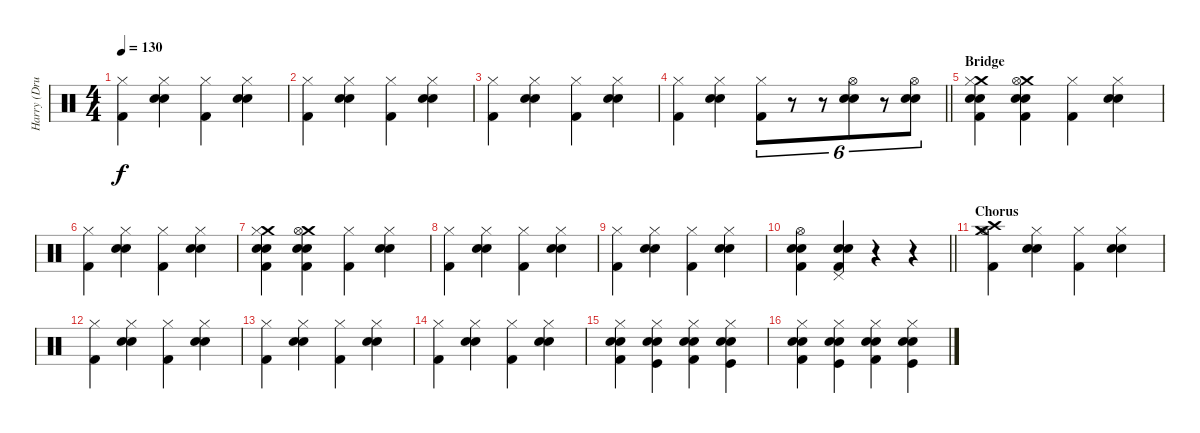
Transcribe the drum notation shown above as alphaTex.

\track ("Harry (Drums)" "Harry (Dru") {instrument percussion}
\staff {score}
\articulation defaults
\ts (4 4)
\tempo 130
\clef neutral
\ks c
("Hi-Hat (closed)" "Kick (hit) 2").4{dy f} ("Hi-Hat (closed)" "Snare (hit) 2" "Electric Snare (hit)").4 ("Hi-Hat (closed)" "Kick (hit) 2").4 ("Hi-Hat (closed)" "Snare (hit) 2" "Electric Snare (hit)").4 |
("Hi-Hat (closed)" "Kick (hit) 2").4 ("Hi-Hat (closed)" "Snare (hit) 2" "Electric Snare (hit)").4 ("Hi-Hat (closed)" "Kick (hit) 2").4 ("Hi-Hat (closed)" "Snare (hit) 2" "Electric Snare (hit)").4 |
("Hi-Hat (closed)" "Kick (hit) 2").4 ("Hi-Hat (closed)" "Snare (hit) 2" "Electric Snare (hit)").4 ("Hi-Hat (closed)" "Kick (hit) 2").4 ("Hi-Hat (closed)" "Snare (hit) 2" "Electric Snare (hit)").4 |
\barLineRight lightlight
("Hi-Hat (closed)" "Kick (hit) 2").4 ("Hi-Hat (closed)" "Snare (hit) 2" "Electric Snare (hit)").4 ("Hi-Hat (closed)" "Kick (hit) 2").8{tu (6 4)} r.8{tu (6 4)} r.8{tu (6 4)} ("Hi-Hat (open)" "Snare (hit) 2" "Electric Snare (hit)").8{tu (6 4)} r.8{tu (6 4)} ("Hi-Hat (open)" "Snare (hit) 2" "Electric Snare (hit)").8{tu (6 4)} |
\section ("" "Bridge")
("Crash medium (hit)" "Hi-Hat (closed)" "Snare (hit) 2" "Kick (hit) 2" "Electric Snare (hit)").4 ("Crash medium (hit)" "Hi-Hat (open)" "Kick (hit) 2" "Snare (hit) 2" "Electric Snare (hit)").4 ("Hi-Hat (closed)" "Kick (hit) 2").4 ("Hi-Hat (closed)" "Snare (hit) 2" "Electric Snare (hit)").4 |
("Hi-Hat (closed)" "Kick (hit) 2").4 ("Hi-Hat (closed)" "Snare (hit) 2" "Electric Snare (hit)").4 ("Hi-Hat (closed)" "Kick (hit) 2").4 ("Hi-Hat (closed)" "Snare (hit) 2" "Electric Snare (hit)").4 |
("Crash medium (hit)" "Hi-Hat (closed)" "Snare (hit) 2" "Kick (hit) 2" "Electric Snare (hit)").4 ("Crash medium (hit)" "Hi-Hat (open)" "Kick (hit) 2" "Snare (hit) 2" "Electric Snare (hit)").4 ("Hi-Hat (closed)" "Kick (hit) 2").4 ("Hi-Hat (closed)" "Snare (hit) 2" "Electric Snare (hit)").4 |
("Hi-Hat (closed)" "Kick (hit) 2").4 ("Hi-Hat (closed)" "Snare (hit) 2" "Electric Snare (hit)").4 ("Hi-Hat (closed)" "Kick (hit) 2").4 ("Hi-Hat (closed)" "Snare (hit) 2" "Electric Snare (hit)").4 |
("Hi-Hat (closed)" "Kick (hit) 2").4 ("Hi-Hat (closed)" "Snare (hit) 2" "Electric Snare (hit)").4 ("Hi-Hat (closed)" "Kick (hit) 2").4 ("Hi-Hat (closed)" "Snare (hit) 2" "Electric Snare (hit)").4 |
\barLineRight lightlight
("Hi-Hat (open)" "Electric Snare (hit)" "Kick (hit) 2" "Snare (hit) 2").4 ("Pedal Hi-Hat (hit)" "Kick (hit) 2" "Snare (hit) 2" "Electric Snare (hit)").4 r.4 r.4 |
\section ("" "Chorus")
("Crash high (hit)" "Crash medium (hit)" "Hi-Hat (open)" "Kick (hit) 2").4{volume 13} ("Hi-Hat (closed)" "Snare (hit) 2" "Electric Snare (hit)").4 ("Hi-Hat (closed)" "Kick (hit) 2").4 ("Hi-Hat (closed)" "Snare (hit) 2" "Electric Snare (hit)").4 |
("Hi-Hat (closed)" "Kick (hit) 2").4 ("Hi-Hat (closed)" "Snare (hit) 2" "Electric Snare (hit)").4 ("Hi-Hat (closed)" "Kick (hit) 2").4 ("Hi-Hat (closed)" "Snare (hit) 2" "Electric Snare (hit)").4 |
("Hi-Hat (closed)" "Kick (hit) 2").4 ("Hi-Hat (closed)" "Snare (hit) 2" "Electric Snare (hit)").4 ("Hi-Hat (closed)" "Kick (hit) 2").4 ("Hi-Hat (closed)" "Snare (hit) 2" "Electric Snare (hit)").4 |
("Hi-Hat (closed)" "Kick (hit) 2").4 ("Hi-Hat (closed)" "Snare (hit) 2" "Electric Snare (hit)").4 ("Hi-Hat (closed)" "Kick (hit) 2").4 ("Hi-Hat (closed)" "Snare (hit) 2" "Electric Snare (hit)").4 |
("Hi-Hat (closed)" "Electric Snare (hit)" "Snare (hit) 2" "Kick (hit) 2").4 ("Hi-Hat (closed)" "Kick (hit)" "Snare (hit) 2" "Electric Snare (hit)").4 ("Hi-Hat (closed)" "Electric Snare (hit)" "Snare (hit) 2" "Kick (hit) 2").4 ("Hi-Hat (closed)" "Kick (hit)" "Snare (hit) 2" "Electric Snare (hit)").4 |
("Hi-Hat (closed)" "Electric Snare (hit)" "Snare (hit) 2" "Kick (hit) 2").4 ("Hi-Hat (closed)" "Kick (hit)" "Snare (hit) 2" "Electric Snare (hit)").4 ("Hi-Hat (closed)" "Electric Snare (hit)" "Snare (hit) 2" "Kick (hit) 2").4 ("Hi-Hat (closed)" "Kick (hit)" "Snare (hit) 2" "Electric Snare (hit)").4
